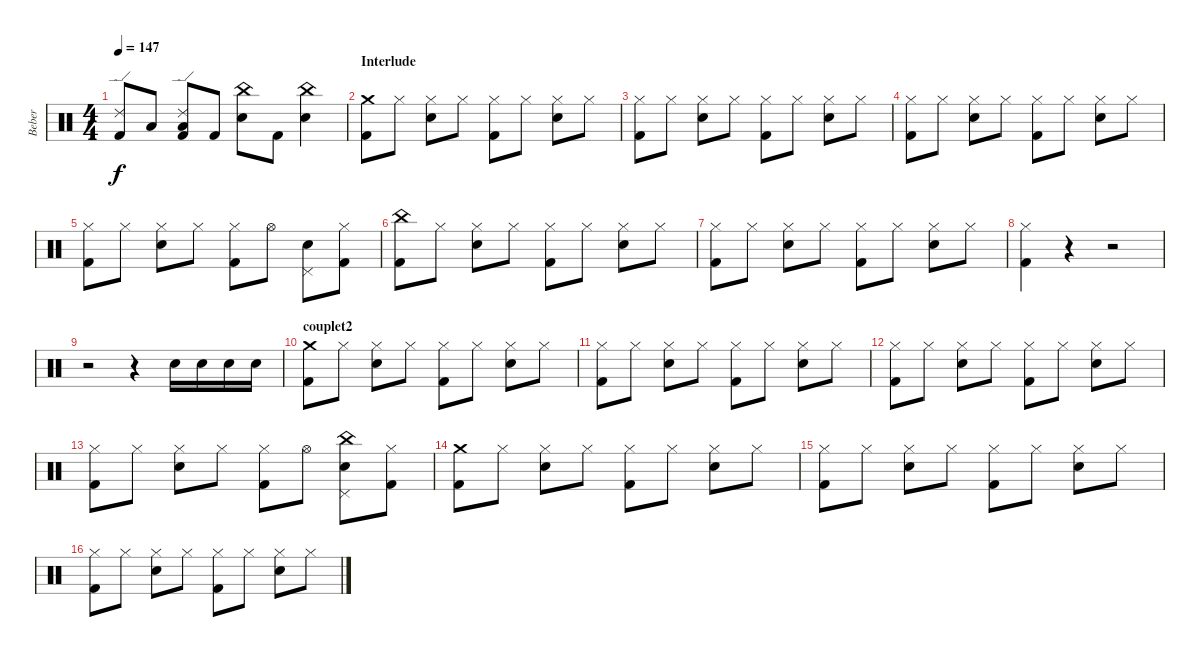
\track ("Beber" "Beber") {instrument percussion}
\staff {score}
\articulation defaults
\ts (4 4)
\tempo 147
\clef neutral
\ks c
("Ride (edge) 2" "Kick (hit) 2").8{dy f} "Low Floor Tom (hit)".8 ("Ride (edge) 2" "Low Floor Tom (hit)" "Kick (hit) 2").8 "Kick (hit) 2".8 ("China (hit)" "Snare (hit) 2").8 "Kick (hit) 2".8 ("China (hit)" "Snare (hit) 2").4 |
\section ("" "Interlude")
("Crash medium (hit)" "Kick (hit) 2").8 "Hi-Hat (closed)".8 ("Hi-Hat (closed)" "Snare (hit) 2").8 "Hi-Hat (closed)".8 ("Hi-Hat (closed)" "Kick (hit) 2").8 "Hi-Hat (closed)".8 ("Hi-Hat (closed)" "Snare (hit) 2").8 "Hi-Hat (closed)".8 |
("Hi-Hat (closed)" "Kick (hit) 2").8 "Hi-Hat (closed)".8 ("Hi-Hat (closed)" "Snare (hit) 2").8 "Hi-Hat (closed)".8 ("Hi-Hat (closed)" "Kick (hit) 2").8 "Hi-Hat (closed)".8 ("Hi-Hat (closed)" "Snare (hit) 2").8 "Hi-Hat (closed)".8 |
("Hi-Hat (closed)" "Kick (hit) 2").8 "Hi-Hat (closed)".8 ("Hi-Hat (closed)" "Snare (hit) 2").8 "Hi-Hat (closed)".8 ("Hi-Hat (closed)" "Kick (hit) 2").8 "Hi-Hat (closed)".8 ("Hi-Hat (closed)" "Snare (hit) 2").8 "Hi-Hat (closed)".8 |
("Hi-Hat (closed)" "Kick (hit) 2").8 "Hi-Hat (closed)".8 ("Hi-Hat (closed)" "Snare (hit) 2").8 "Hi-Hat (closed)".8 ("Hi-Hat (closed)" "Kick (hit) 2").8 "Hi-Hat (open)".8 ("Snare (hit) 2" "Pedal Hi-Hat (hit)").8 ("Hi-Hat (closed)" "Kick (hit) 2").8 |
("China (hit)" "Kick (hit) 2").8 "Hi-Hat (closed)".8 ("Hi-Hat (closed)" "Snare (hit) 2").8 "Hi-Hat (closed)".8 ("Hi-Hat (closed)" "Kick (hit) 2").8 "Hi-Hat (closed)".8 ("Hi-Hat (closed)" "Snare (hit) 2").8 "Hi-Hat (closed)".8 |
("Hi-Hat (closed)" "Kick (hit) 2").8 "Hi-Hat (closed)".8 ("Hi-Hat (closed)" "Snare (hit) 2").8 "Hi-Hat (closed)".8 ("Hi-Hat (closed)" "Kick (hit) 2").8 "Hi-Hat (closed)".8 ("Hi-Hat (closed)" "Snare (hit) 2").8 "Hi-Hat (closed)".8 |
("Hi-Hat (closed)" "Kick (hit) 2").4 r.4 r.2 |
r.2 r.4 "Snare (hit) 2".16 "Snare (hit) 2".16 "Snare (hit) 2".16 "Snare (hit) 2".16 |
\section ("" "couplet2")
("Crash medium (hit)" "Kick (hit) 2").8 "Hi-Hat (closed)".8 ("Hi-Hat (closed)" "Snare (hit) 2").8 "Hi-Hat (closed)".8 ("Hi-Hat (closed)" "Kick (hit) 2").8 "Hi-Hat (closed)".8 ("Hi-Hat (closed)" "Snare (hit) 2").8 "Hi-Hat (closed)".8 |
("Hi-Hat (closed)" "Kick (hit) 2").8 "Hi-Hat (closed)".8 ("Hi-Hat (closed)" "Snare (hit) 2").8 "Hi-Hat (closed)".8 ("Hi-Hat (closed)" "Kick (hit) 2").8 "Hi-Hat (closed)".8 ("Hi-Hat (closed)" "Snare (hit) 2").8 "Hi-Hat (closed)".8 |
("Hi-Hat (closed)" "Kick (hit) 2").8 "Hi-Hat (closed)".8 ("Hi-Hat (closed)" "Snare (hit) 2").8 "Hi-Hat (closed)".8 ("Hi-Hat (closed)" "Kick (hit) 2").8 "Hi-Hat (closed)".8 ("Hi-Hat (closed)" "Snare (hit) 2").8 "Hi-Hat (closed)".8 |
("Hi-Hat (closed)" "Kick (hit) 2").8 "Hi-Hat (closed)".8 ("Hi-Hat (closed)" "Snare (hit) 2").8 "Hi-Hat (closed)".8 ("Hi-Hat (closed)" "Kick (hit) 2").8 "Hi-Hat (open)".8 ("China (hit)" "Snare (hit) 2" "Pedal Hi-Hat (hit)").8 ("Hi-Hat (closed)" "Kick (hit) 2").8 |
("Crash medium (hit)" "Kick (hit) 2").8 "Hi-Hat (closed)".8 ("Hi-Hat (closed)" "Snare (hit) 2").8 "Hi-Hat (closed)".8 ("Hi-Hat (closed)" "Kick (hit) 2").8 "Hi-Hat (closed)".8 ("Hi-Hat (closed)" "Snare (hit) 2").8 "Hi-Hat (closed)".8 |
("Hi-Hat (closed)" "Kick (hit) 2").8 "Hi-Hat (closed)".8 ("Hi-Hat (closed)" "Snare (hit) 2").8 "Hi-Hat (closed)".8 ("Hi-Hat (closed)" "Kick (hit) 2").8 "Hi-Hat (closed)".8 ("Hi-Hat (closed)" "Snare (hit) 2").8 "Hi-Hat (closed)".8 |
("Hi-Hat (closed)" "Kick (hit) 2").8 "Hi-Hat (closed)".8 ("Hi-Hat (closed)" "Snare (hit) 2").8 "Hi-Hat (closed)".8 ("Hi-Hat (closed)" "Kick (hit) 2").8 "Hi-Hat (closed)".8 ("Hi-Hat (closed)" "Snare (hit) 2").8 "Hi-Hat (closed)".8
